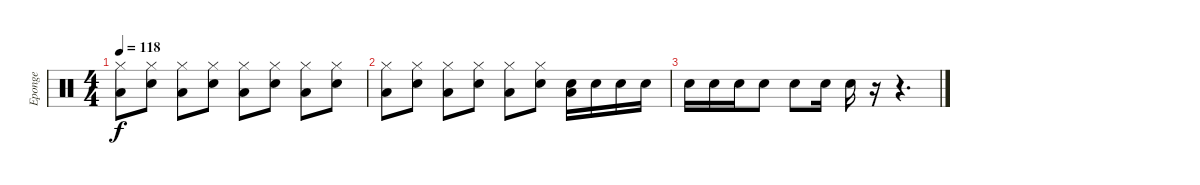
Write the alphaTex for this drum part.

\track ("Eponge" "Eponge") {instrument percussion}
\staff {score}
\articulation defaults
\ts (4 4)
\tempo 118
\clef neutral
\ks c
("Low Floor Tom (hit)" "Hi-Hat (closed)").8{dy f} ("Hi-Hat (closed)" "Snare (hit) 2").8 ("Low Floor Tom (hit)" "Hi-Hat (closed)").8 ("Hi-Hat (closed)" "Snare (hit) 2").8 ("Low Floor Tom (hit)" "Hi-Hat (closed)").8 ("Hi-Hat (closed)" "Snare (hit) 2").8 ("Low Floor Tom (hit)" "Hi-Hat (closed)").8 ("Hi-Hat (closed)" "Snare (hit) 2").8 |
("Low Floor Tom (hit)" "Hi-Hat (closed)").8 ("Hi-Hat (closed)" "Snare (hit) 2").8 ("Low Floor Tom (hit)" "Hi-Hat (closed)").8 ("Hi-Hat (closed)" "Snare (hit) 2").8 ("Low Floor Tom (hit)" "Hi-Hat (closed)").8 ("Hi-Hat (closed)" "Snare (hit) 2").8 ("Low Floor Tom (hit)" "Snare (hit) 2").16 "Snare (hit) 2".16 "Snare (hit) 2".16 "Snare (hit) 2".16 |
"Snare (hit) 2".16 "Snare (hit) 2".16 "Snare (hit) 2".16 "Snare (hit) 2".8 "Snare (hit) 2".8 "Snare (hit) 2".16 "Snare (hit) 2".16 r.16 r.4{d}
